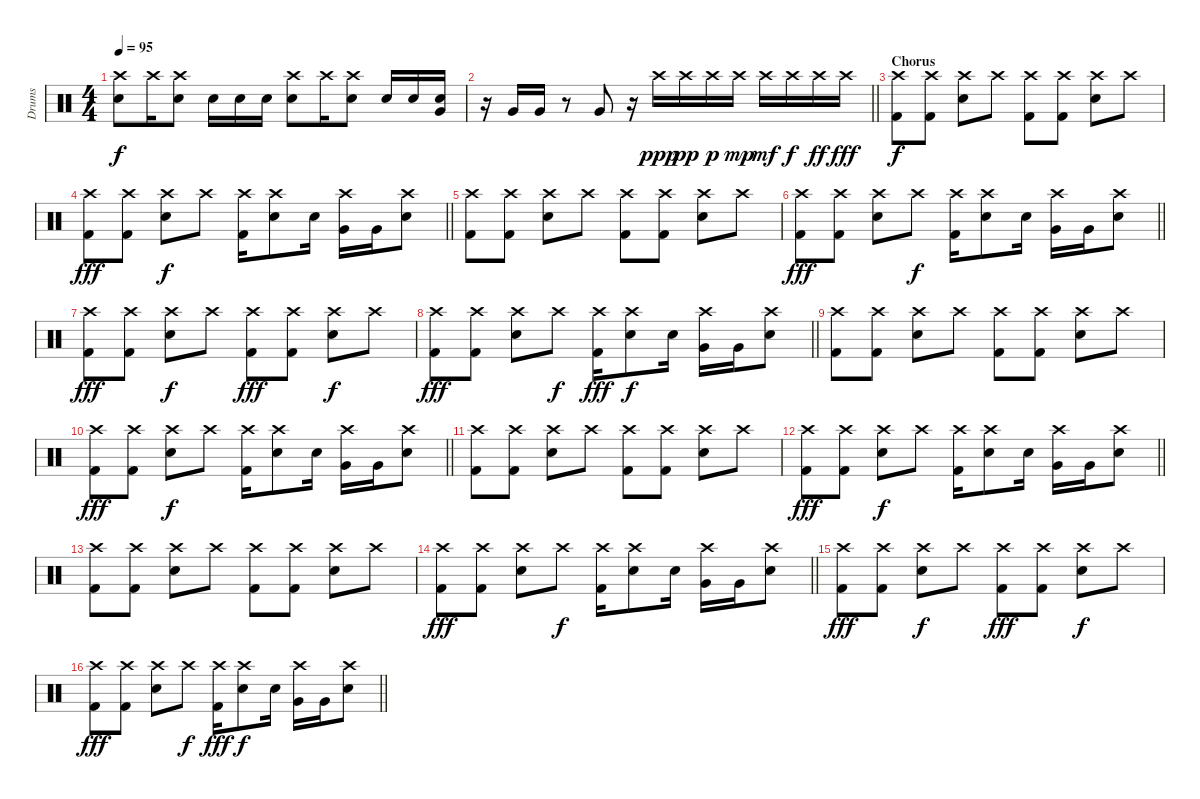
\track ("Drums" "Drums") {instrument percussion}
\staff {score}
\articulation defaults
\ts (4 4)
\tempo 95
\clef neutral
\ks c
("Crash high (hit)" "Snare (hit) 2").8{dy f} "Crash high (hit)".16 ("Snare (hit) 2" "Crash high (hit)").8 "Snare (hit) 2".16 "Snare (hit) 2".16 "Snare (hit) 2".16 ("Crash high (hit)" "Snare (hit) 2").8 "Crash high (hit)".16 ("Snare (hit) 2" "Crash high (hit)").8 "Snare (hit) 2".16 "Snare (hit) 2".16 ("Snare (hit) 2" "Very Low Tom (hit)").16 |
\barLineRight lightlight
r.16 "Very Low Tom (hit)".16 "Very Low Tom (hit)".16 r.8 "Very Low Tom (hit)".8 r.16 "Crash high (hit)".16{dy ppp} "Crash high (hit)".16{dy pp} "Crash high (hit)".16{dy p} "Crash high (hit)".16{dy mp} "Crash high (hit)".16{dy mf} "Crash high (hit)".16{dy f} "Crash high (hit)".16{dy ff} "Crash high (hit)".16{dy fff} |
\section ("" "Chorus")
("Crash high (hit)" "Kick (hit) 2").8{dy f} ("Crash high (hit)" "Kick (hit) 2").8 ("Crash high (hit)" "Snare (hit) 2").8 "Crash high (hit)".8 ("Crash high (hit)" "Kick (hit) 2").8 ("Crash high (hit)" "Kick (hit) 2").8 ("Crash high (hit)" "Snare (hit) 2").8 "Crash high (hit)".8 |
\barLineRight lightlight
("Crash high (hit)" "Kick (hit) 2").8{dy fff} ("Crash high (hit)" "Kick (hit) 2").8 ("Crash high (hit)" "Snare (hit) 2").8{dy f} "Crash high (hit)".8 ("Kick (hit) 2" "Crash high (hit)").16 ("Snare (hit) 2" "Crash high (hit)").8 "Snare (hit) 2".16 ("Very Low Tom (hit)" "Crash high (hit)").16 "Very Low Tom (hit)".16 ("Snare (hit) 2" "Crash high (hit)").8 |
("Crash high (hit)" "Kick (hit) 2").8 ("Crash high (hit)" "Kick (hit) 2").8 ("Crash high (hit)" "Snare (hit) 2").8 "Crash high (hit)".8 ("Crash high (hit)" "Kick (hit) 2").8 ("Crash high (hit)" "Kick (hit) 2").8 ("Crash high (hit)" "Snare (hit) 2").8 "Crash high (hit)".8 |
\barLineRight lightlight
("Crash high (hit)" "Kick (hit) 2").8{dy fff} ("Crash high (hit)" "Kick (hit) 2").8 ("Crash high (hit)" "Snare (hit) 2").8 "Crash high (hit)".8{dy f} ("Kick (hit) 2" "Crash high (hit)").16 ("Snare (hit) 2" "Crash high (hit)").8 "Snare (hit) 2".16 ("Very Low Tom (hit)" "Crash high (hit)").16 "Very Low Tom (hit)".16 ("Snare (hit) 2" "Crash high (hit)").8 |
("Crash high (hit)" "Kick (hit) 2").8{dy fff} ("Crash high (hit)" "Kick (hit) 2").8 ("Crash high (hit)" "Snare (hit) 2").8{dy f} "Crash high (hit)".8 ("Crash high (hit)" "Kick (hit) 2").8{dy fff} ("Crash high (hit)" "Kick (hit) 2").8 ("Crash high (hit)" "Snare (hit) 2").8{dy f} "Crash high (hit)".8 |
\barLineRight lightlight
("Crash high (hit)" "Kick (hit) 2").8{dy fff} ("Crash high (hit)" "Kick (hit) 2").8 ("Crash high (hit)" "Snare (hit) 2").8 "Crash high (hit)".8{dy f} ("Kick (hit) 2" "Crash high (hit)").16{dy fff} ("Snare (hit) 2" "Crash high (hit)").8{dy f} "Snare (hit) 2".16 ("Very Low Tom (hit)" "Crash high (hit)").16 "Very Low Tom (hit)".16 ("Snare (hit) 2" "Crash high (hit)").8 |
("Crash high (hit)" "Kick (hit) 2").8 ("Crash high (hit)" "Kick (hit) 2").8 ("Crash high (hit)" "Snare (hit) 2").8 "Crash high (hit)".8 ("Crash high (hit)" "Kick (hit) 2").8 ("Crash high (hit)" "Kick (hit) 2").8 ("Crash high (hit)" "Snare (hit) 2").8 "Crash high (hit)".8 |
\barLineRight lightlight
("Crash high (hit)" "Kick (hit) 2").8{dy fff} ("Crash high (hit)" "Kick (hit) 2").8 ("Crash high (hit)" "Snare (hit) 2").8{dy f} "Crash high (hit)".8 ("Kick (hit) 2" "Crash high (hit)").16 ("Snare (hit) 2" "Crash high (hit)").8 "Snare (hit) 2".16 ("Very Low Tom (hit)" "Crash high (hit)").16 "Very Low Tom (hit)".16 ("Snare (hit) 2" "Crash high (hit)").8 |
("Crash high (hit)" "Kick (hit) 2").8 ("Crash high (hit)" "Kick (hit) 2").8 ("Crash high (hit)" "Snare (hit) 2").8 "Crash high (hit)".8 ("Crash high (hit)" "Kick (hit) 2").8 ("Crash high (hit)" "Kick (hit) 2").8 ("Crash high (hit)" "Snare (hit) 2").8 "Crash high (hit)".8 |
\barLineRight lightlight
("Crash high (hit)" "Kick (hit) 2").8{dy fff} ("Crash high (hit)" "Kick (hit) 2").8 ("Crash high (hit)" "Snare (hit) 2").8{dy f} "Crash high (hit)".8 ("Kick (hit) 2" "Crash high (hit)").16 ("Snare (hit) 2" "Crash high (hit)").8 "Snare (hit) 2".16 ("Very Low Tom (hit)" "Crash high (hit)").16 "Very Low Tom (hit)".16 ("Snare (hit) 2" "Crash high (hit)").8 |
("Crash high (hit)" "Kick (hit) 2").8 ("Crash high (hit)" "Kick (hit) 2").8 ("Crash high (hit)" "Snare (hit) 2").8 "Crash high (hit)".8 ("Crash high (hit)" "Kick (hit) 2").8 ("Crash high (hit)" "Kick (hit) 2").8 ("Crash high (hit)" "Snare (hit) 2").8 "Crash high (hit)".8 |
\barLineRight lightlight
("Crash high (hit)" "Kick (hit) 2").8{dy fff} ("Crash high (hit)" "Kick (hit) 2").8 ("Crash high (hit)" "Snare (hit) 2").8 "Crash high (hit)".8{dy f} ("Kick (hit) 2" "Crash high (hit)").16 ("Snare (hit) 2" "Crash high (hit)").8 "Snare (hit) 2".16 ("Very Low Tom (hit)" "Crash high (hit)").16 "Very Low Tom (hit)".16 ("Snare (hit) 2" "Crash high (hit)").8 |
("Crash high (hit)" "Kick (hit) 2").8{dy fff} ("Crash high (hit)" "Kick (hit) 2").8 ("Crash high (hit)" "Snare (hit) 2").8{dy f} "Crash high (hit)".8 ("Crash high (hit)" "Kick (hit) 2").8{dy fff} ("Crash high (hit)" "Kick (hit) 2").8 ("Crash high (hit)" "Snare (hit) 2").8{dy f} "Crash high (hit)".8 |
\barLineRight lightlight
("Crash high (hit)" "Kick (hit) 2").8{dy fff} ("Crash high (hit)" "Kick (hit) 2").8 ("Crash high (hit)" "Snare (hit) 2").8 "Crash high (hit)".8{dy f} ("Kick (hit) 2" "Crash high (hit)").16{dy fff} ("Snare (hit) 2" "Crash high (hit)").8{dy f} "Snare (hit) 2".16 ("Very Low Tom (hit)" "Crash high (hit)").16 "Very Low Tom (hit)".16 ("Snare (hit) 2" "Crash high (hit)").8
